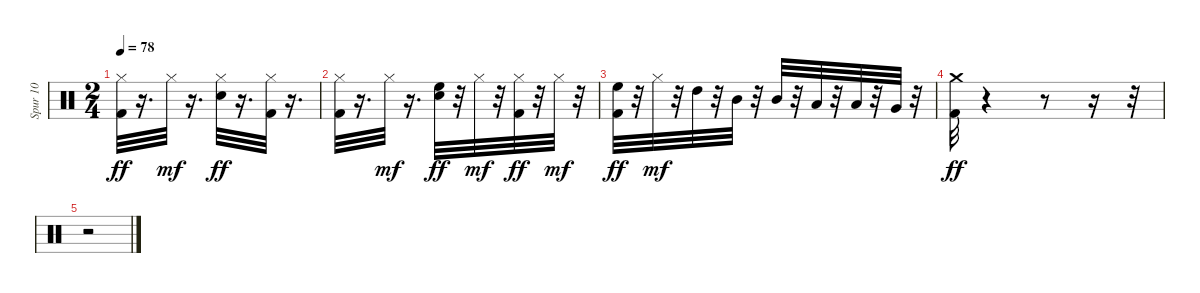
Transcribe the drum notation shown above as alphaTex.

\track ("Spur 10" "Spur 10") {instrument percussion}
\staff {score}
\articulation defaults
\ts (2 4)
\tempo 78
\clef neutral
\ks c
("Hi-Hat (closed)" "Kick (hit) 2").32{dy ff} r.16{d} "Hi-Hat (closed)".32{dy mf} r.16{d} ("Hi-Hat (closed)" "Snare (hit) 2").32{dy ff} r.16{d} ("Hi-Hat (closed)" "Kick (hit) 2").32 r.16{d} |
("Hi-Hat (closed)" "Kick (hit) 2").32 r.16{d} "Hi-Hat (closed)".32{dy mf} r.16{d} ("High Floor Tom (hit)" "Snare (hit) 2").32{dy ff} r.32 "Hi-Hat (closed)".32{dy mf} r.32 ("Hi-Hat (closed)" "Kick (hit) 2").32{dy ff} r.32 "Hi-Hat (closed)".32{dy mf} r.32 |
("High Floor Tom (hit)" "Kick (hit) 2").32{dy ff} r.32 "Hi-Hat (closed)".32{dy mf} r.32 "High Tom (hit)".32 r.32 "Mid Tom (hit)".32 r.32 "Mid Tom (hit)".32 r.32 "Low Tom (hit)".32 r.32 "Low Tom (hit)".32 r.32 "Very Low Tom (hit)".32 r.32 |
("Crash medium (hit)" "Kick (hit) 2").32{dy ff} r.4 r.8 r.16 r.32 |
r.2
